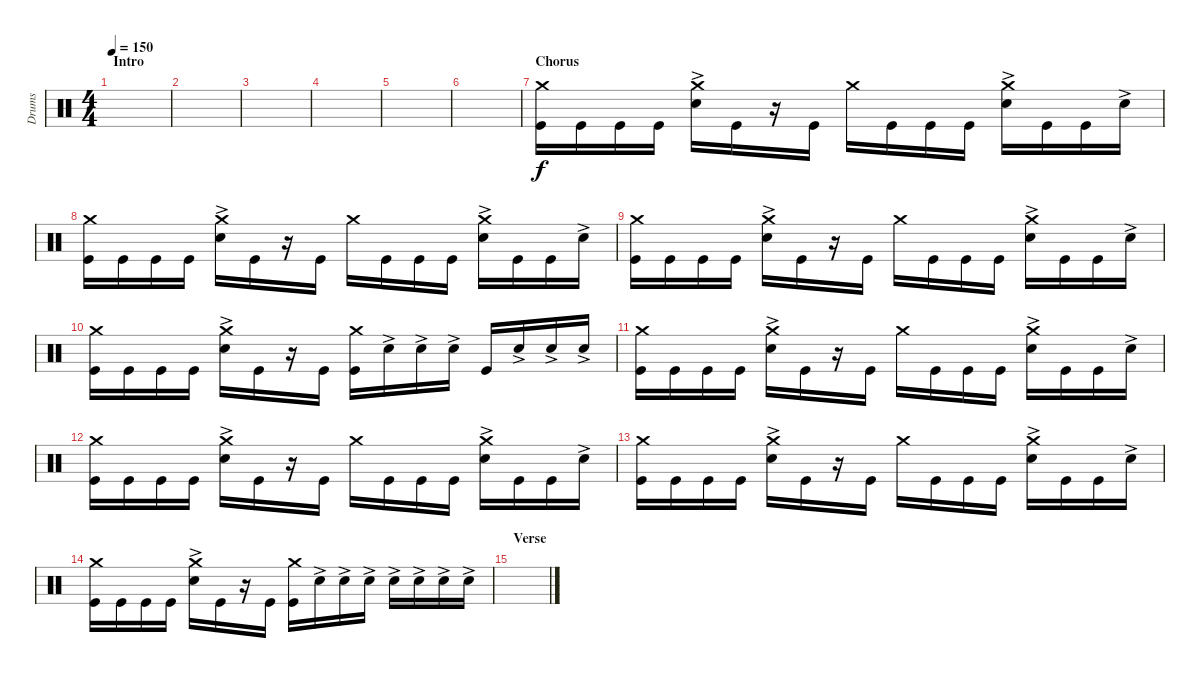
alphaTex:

\track ("Drums" "Drums") {instrument percussion}
\staff {score}
\articulation defaults
\ts (4 4)
\section ("" "Intro")
\tempo 150
\clef neutral
\ks c
|
|
|
|
|
|
\section ("" "Chorus")
("Crash medium (hit)" "Kick (hit)").16 "Kick (hit)".16 "Kick (hit)".16 "Kick (hit)".16 ("Crash medium (hit)" "Snare (hit) 2"{ac}).16 "Kick (hit)".16 r.16 "Kick (hit)".16 "Crash medium (hit)".16 "Kick (hit)".16 "Kick (hit)".16 "Kick (hit)".16 ("Crash medium (hit)" "Snare (hit) 2"{ac}).16 "Kick (hit)".16 "Kick (hit)".16 "Snare (hit) 2"{ac}.16 |
("Crash medium (hit)" "Kick (hit)").16 "Kick (hit)".16 "Kick (hit)".16 "Kick (hit)".16 ("Crash medium (hit)" "Snare (hit) 2"{ac}).16 "Kick (hit)".16 r.16 "Kick (hit)".16 "Crash medium (hit)".16 "Kick (hit)".16 "Kick (hit)".16 "Kick (hit)".16 ("Crash medium (hit)" "Snare (hit) 2"{ac}).16 "Kick (hit)".16 "Kick (hit)".16 "Snare (hit) 2"{ac}.16 |
("Crash medium (hit)" "Kick (hit)").16 "Kick (hit)".16 "Kick (hit)".16 "Kick (hit)".16 ("Crash medium (hit)" "Snare (hit) 2"{ac}).16 "Kick (hit)".16 r.16 "Kick (hit)".16 "Crash medium (hit)".16 "Kick (hit)".16 "Kick (hit)".16 "Kick (hit)".16 ("Crash medium (hit)" "Snare (hit) 2"{ac}).16 "Kick (hit)".16 "Kick (hit)".16 "Snare (hit) 2"{ac}.16 |
("Crash medium (hit)" "Kick (hit)").16 "Kick (hit)".16 "Kick (hit)".16 "Kick (hit)".16 ("Crash medium (hit)" "Snare (hit) 2"{ac}).16 "Kick (hit)".16 r.16 "Kick (hit)".16 ("Kick (hit)" "Crash medium (hit)").16 "Snare (hit) 2"{ac}.16 "Snare (hit) 2"{ac}.16 "Snare (hit) 2"{ac}.16 "Kick (hit)".16 "Snare (hit) 2"{ac}.16 "Snare (hit) 2"{ac}.16 "Snare (hit) 2"{ac}.16 |
("Crash medium (hit)" "Kick (hit)").16 "Kick (hit)".16 "Kick (hit)".16 "Kick (hit)".16 ("Crash medium (hit)" "Snare (hit) 2"{ac}).16 "Kick (hit)".16 r.16 "Kick (hit)".16 "Crash medium (hit)".16 "Kick (hit)".16 "Kick (hit)".16 "Kick (hit)".16 ("Crash medium (hit)" "Snare (hit) 2"{ac}).16 "Kick (hit)".16 "Kick (hit)".16 "Snare (hit) 2"{ac}.16 |
("Crash medium (hit)" "Kick (hit)").16 "Kick (hit)".16 "Kick (hit)".16 "Kick (hit)".16 ("Crash medium (hit)" "Snare (hit) 2"{ac}).16 "Kick (hit)".16 r.16 "Kick (hit)".16 "Crash medium (hit)".16 "Kick (hit)".16 "Kick (hit)".16 "Kick (hit)".16 ("Crash medium (hit)" "Snare (hit) 2"{ac}).16 "Kick (hit)".16 "Kick (hit)".16 "Snare (hit) 2"{ac}.16 |
("Crash medium (hit)" "Kick (hit)").16 "Kick (hit)".16 "Kick (hit)".16 "Kick (hit)".16 ("Crash medium (hit)" "Snare (hit) 2"{ac}).16 "Kick (hit)".16 r.16 "Kick (hit)".16 "Crash medium (hit)".16 "Kick (hit)".16 "Kick (hit)".16 "Kick (hit)".16 ("Crash medium (hit)" "Snare (hit) 2"{ac}).16 "Kick (hit)".16 "Kick (hit)".16 "Snare (hit) 2"{ac}.16 |
("Crash medium (hit)" "Kick (hit)").16 "Kick (hit)".16 "Kick (hit)".16 "Kick (hit)".16 ("Crash medium (hit)" "Snare (hit) 2"{ac}).16 "Kick (hit)".16 r.16 "Kick (hit)".16 ("Kick (hit)" "Crash medium (hit)").16 "Snare (hit) 2"{ac}.16 "Snare (hit) 2"{ac}.16 "Snare (hit) 2"{ac}.16 "Snare (hit) 2"{ac}.16 "Snare (hit) 2"{ac}.16 "Snare (hit) 2"{ac}.16 "Snare (hit) 2"{ac}.16 |
\section ("" "Verse")
